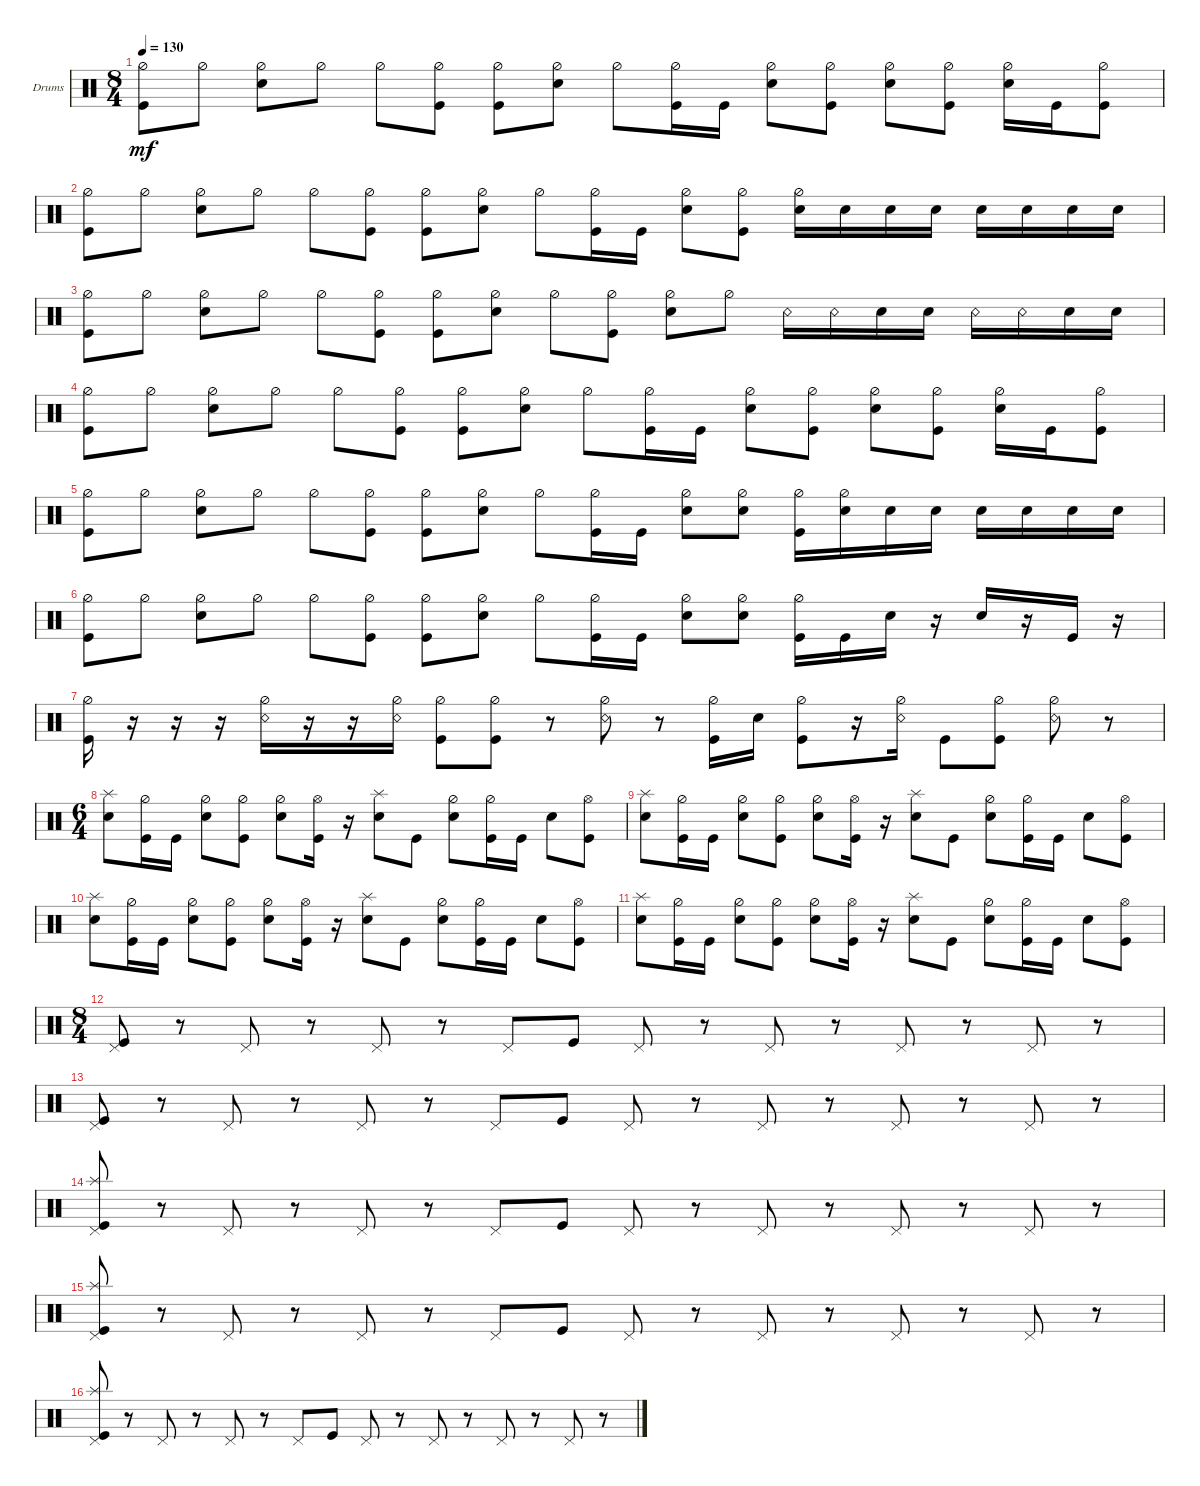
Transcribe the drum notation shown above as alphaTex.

\bracketExtendMode groupsimilarinstruments
\firstSystemTrackNameOrientation horizontal
\otherSystemsTrackNameOrientation horizontal
\track ("Drumkit" "Drums") {instrument percussion}
\staff {score}
\articulation defaults
\ts (8 4)
\tempo 130
\clef neutral
\ks c
("Hi-Hat (half)" "Kick (hit)").8{dy mf} "Hi-Hat (half)".8 ("Hi-Hat (half)" "Snare (hit) 2").8 "Hi-Hat (half)".8 "Hi-Hat (half)".8 ("Hi-Hat (half)" "Kick (hit)").8 ("Hi-Hat (half)" "Kick (hit)").8 ("Hi-Hat (half)" "Snare (hit) 2").8 "Hi-Hat (half)".8 ("Hi-Hat (half)" "Kick (hit)").16 "Kick (hit)".16 ("Hi-Hat (half)" "Snare (hit) 2").8 ("Kick (hit)" "Hi-Hat (half)").8 ("Snare (hit) 2" "Hi-Hat (half)").8 ("Kick (hit)" "Hi-Hat (half)").8 ("Snare (hit) 2" "Hi-Hat (half)").16 "Kick (hit)".16 ("Kick (hit)" "Hi-Hat (half)").8 |
("Hi-Hat (half)" "Kick (hit)").8 "Hi-Hat (half)".8 ("Hi-Hat (half)" "Snare (hit) 2").8 "Hi-Hat (half)".8 "Hi-Hat (half)".8 ("Hi-Hat (half)" "Kick (hit)").8 ("Hi-Hat (half)" "Kick (hit)").8 ("Hi-Hat (half)" "Snare (hit) 2").8 "Hi-Hat (half)".8 ("Hi-Hat (half)" "Kick (hit)").16 "Kick (hit)".16 ("Hi-Hat (half)" "Snare (hit) 2").8 ("Kick (hit)" "Hi-Hat (half)").8 ("Snare (hit) 2" "Hi-Hat (half)").16 "Snare (hit) 2".16 "Snare (hit) 2".16 "Snare (hit) 2".16 "Snare (hit) 2".16 "Snare (hit) 2".16 "Snare (hit) 2".16 "Snare (hit) 2".16 |
("Hi-Hat (half)" "Kick (hit)").8 "Hi-Hat (half)".8 ("Hi-Hat (half)" "Snare (hit) 2").8 "Hi-Hat (half)".8 "Hi-Hat (half)".8 ("Hi-Hat (half)" "Kick (hit)").8 ("Hi-Hat (half)" "Kick (hit)").8 ("Hi-Hat (half)" "Snare (hit) 2").8 "Hi-Hat (half)".8 ("Hi-Hat (half)" "Kick (hit)").8 ("Hi-Hat (half)" "Snare (hit) 2").8 "Hi-Hat (half)".8 "Snare (rim shot)".16 "Snare (rim shot)".16 "Snare (hit) 2".16 "Snare (hit) 2".16 "Snare (rim shot)".16 "Snare (rim shot)".16 "Snare (hit) 2".16 "Snare (hit) 2".16 |
("Hi-Hat (half)" "Kick (hit)").8 "Hi-Hat (half)".8 ("Hi-Hat (half)" "Snare (hit) 2").8 "Hi-Hat (half)".8 "Hi-Hat (half)".8 ("Hi-Hat (half)" "Kick (hit)").8 ("Hi-Hat (half)" "Kick (hit)").8 ("Hi-Hat (half)" "Snare (hit) 2").8 "Hi-Hat (half)".8 ("Hi-Hat (half)" "Kick (hit)").16 "Kick (hit)".16 ("Hi-Hat (half)" "Snare (hit) 2").8 ("Kick (hit)" "Hi-Hat (half)").8 ("Snare (hit) 2" "Hi-Hat (half)").8 ("Kick (hit)" "Hi-Hat (half)").8 ("Snare (hit) 2" "Hi-Hat (half)").16 "Kick (hit)".16 ("Kick (hit)" "Hi-Hat (half)").8 |
("Hi-Hat (half)" "Kick (hit)").8 "Hi-Hat (half)".8 ("Hi-Hat (half)" "Snare (hit) 2").8 "Hi-Hat (half)".8 "Hi-Hat (half)".8 ("Hi-Hat (half)" "Kick (hit)").8 ("Hi-Hat (half)" "Kick (hit)").8 ("Hi-Hat (half)" "Snare (hit) 2").8 "Hi-Hat (half)".8 ("Hi-Hat (half)" "Kick (hit)").16 "Kick (hit)".16 ("Hi-Hat (half)" "Snare (hit) 2").8 ("Hi-Hat (half)" "Snare (hit) 2").8 ("Hi-Hat (half)" "Kick (hit)").16 ("Snare (hit) 2" "Hi-Hat (half)").16 "Snare (hit) 2".16 "Snare (hit) 2".16 "Snare (hit) 2".16 "Snare (hit) 2".16 "Snare (hit) 2".16 "Snare (hit) 2".16 |
("Hi-Hat (half)" "Kick (hit)").8 "Hi-Hat (half)".8 ("Hi-Hat (half)" "Snare (hit) 2").8 "Hi-Hat (half)".8 "Hi-Hat (half)".8 ("Hi-Hat (half)" "Kick (hit)").8 ("Hi-Hat (half)" "Kick (hit)").8 ("Hi-Hat (half)" "Snare (hit) 2").8 "Hi-Hat (half)".8 ("Hi-Hat (half)" "Kick (hit)").16 "Kick (hit)".16 ("Hi-Hat (half)" "Snare (hit) 2").8 ("Hi-Hat (half)" "Snare (hit) 2").8 ("Hi-Hat (half)" "Kick (hit)").16 "Kick (hit)".16 "Snare (hit) 2".16 r.16 "Snare (hit) 2".16 r.16 "Kick (hit)".16 r.16 |
("Kick (hit)" "Hi-Hat (half)").16 r.16 r.16 r.16 ("Snare (rim shot)" "Hi-Hat (half)").16 r.16 r.16 ("Snare (rim shot)" "Hi-Hat (half)").16 ("Kick (hit)" "Hi-Hat (half)").8 ("Kick (hit)" "Hi-Hat (half)").8 r.8 ("Snare (rim shot)" "Hi-Hat (half)").8 r.8 ("Hi-Hat (half)" "Kick (hit)").16 "Snare (hit) 2".16 ("Hi-Hat (half)" "Kick (hit)").8 r.16 ("Snare (rim shot)" "Hi-Hat (half)").16 "Kick (hit)".8 ("Kick (hit)" "Hi-Hat (half)").8 ("Snare (rim shot)" "Hi-Hat (half)").8 r.8 |
\ts (6 4)
("Splash (hit)" "Snare (hit) 2").8 ("Kick (hit)" "Hi-Hat (half)").16 "Kick (hit)".16 ("Hi-Hat (half)" "Snare (hit) 2").8 ("Kick (hit)" "Hi-Hat (half)").8 ("Snare (hit) 2" "Hi-Hat (half)").8 ("Kick (hit)" "Hi-Hat (open)").16 r.16 ("Splash (hit)" "Snare (hit) 2").8 "Kick (hit)".8 ("Hi-Hat (half)" "Snare (hit) 2").8 ("Hi-Hat (half)" "Kick (hit)").16 "Kick (hit)".16 "Snare (hit) 2".8 ("Kick (hit)" "Hi-Hat (open)").8 |
("Splash (hit)" "Snare (hit) 2").8 ("Kick (hit)" "Hi-Hat (half)").16 "Kick (hit)".16 ("Hi-Hat (half)" "Snare (hit) 2").8 ("Kick (hit)" "Hi-Hat (half)").8 ("Snare (hit) 2" "Hi-Hat (half)").8 ("Kick (hit)" "Hi-Hat (open)").16 r.16 ("Splash (hit)" "Snare (hit) 2").8 "Kick (hit)".8 ("Hi-Hat (half)" "Snare (hit) 2").8 ("Hi-Hat (half)" "Kick (hit)").16 "Kick (hit)".16 "Snare (hit) 2".8 ("Kick (hit)" "Hi-Hat (open)").8 |
("Splash (hit)" "Snare (hit) 2").8 ("Kick (hit)" "Hi-Hat (half)").16 "Kick (hit)".16 ("Hi-Hat (half)" "Snare (hit) 2").8 ("Kick (hit)" "Hi-Hat (half)").8 ("Snare (hit) 2" "Hi-Hat (half)").8 ("Kick (hit)" "Hi-Hat (open)").16 r.16 ("Splash (hit)" "Snare (hit) 2").8 "Kick (hit)".8 ("Hi-Hat (half)" "Snare (hit) 2").8 ("Hi-Hat (half)" "Kick (hit)").16 "Kick (hit)".16 "Snare (hit) 2".8 ("Kick (hit)" "Hi-Hat (open)").8 |
("Splash (hit)" "Snare (hit) 2").8 ("Kick (hit)" "Hi-Hat (half)").16 "Kick (hit)".16 ("Hi-Hat (half)" "Snare (hit) 2").8 ("Kick (hit)" "Hi-Hat (half)").8 ("Snare (hit) 2" "Hi-Hat (half)").8 ("Kick (hit)" "Hi-Hat (open)").16 r.16 ("Splash (hit)" "Snare (hit) 2").8 "Kick (hit)".8 ("Hi-Hat (half)" "Snare (hit) 2").8 ("Hi-Hat (half)" "Kick (hit)").16 "Kick (hit)".16 "Snare (hit) 2".8 ("Kick (hit)" "Hi-Hat (open)").8 |
\ts (8 4)
("Pedal Hi-Hat (hit)" "Kick (hit)").8 r.8 "Pedal Hi-Hat (hit)".8 r.8 "Pedal Hi-Hat (hit)".8 r.8 "Pedal Hi-Hat (hit)".8 "Kick (hit)".8 "Pedal Hi-Hat (hit)".8 r.8 "Pedal Hi-Hat (hit)".8 r.8 "Pedal Hi-Hat (hit)".8 r.8 "Pedal Hi-Hat (hit)".8 r.8 |
("Pedal Hi-Hat (hit)" "Kick (hit)").8 r.8 "Pedal Hi-Hat (hit)".8 r.8 "Pedal Hi-Hat (hit)".8 r.8 "Pedal Hi-Hat (hit)".8 "Kick (hit)".8 "Pedal Hi-Hat (hit)".8 r.8 "Pedal Hi-Hat (hit)".8 r.8 "Pedal Hi-Hat (hit)".8 r.8 "Pedal Hi-Hat (hit)".8 r.8 |
("Kick (hit)" "Pedal Hi-Hat (hit)" "Splash (hit)").8 r.8 "Pedal Hi-Hat (hit)".8 r.8 "Pedal Hi-Hat (hit)".8 r.8 "Pedal Hi-Hat (hit)".8 "Kick (hit)".8 "Pedal Hi-Hat (hit)".8 r.8 "Pedal Hi-Hat (hit)".8 r.8 "Pedal Hi-Hat (hit)".8 r.8 "Pedal Hi-Hat (hit)".8 r.8 |
("Kick (hit)" "Pedal Hi-Hat (hit)" "Splash (hit)").8 r.8 "Pedal Hi-Hat (hit)".8 r.8 "Pedal Hi-Hat (hit)".8 r.8 "Pedal Hi-Hat (hit)".8 "Kick (hit)".8 "Pedal Hi-Hat (hit)".8 r.8 "Pedal Hi-Hat (hit)".8 r.8 "Pedal Hi-Hat (hit)".8 r.8 "Pedal Hi-Hat (hit)".8 r.8 |
("Kick (hit)" "Pedal Hi-Hat (hit)" "Splash (hit)").8 r.8 "Pedal Hi-Hat (hit)".8 r.8 "Pedal Hi-Hat (hit)".8 r.8 "Pedal Hi-Hat (hit)".8 "Kick (hit)".8 "Pedal Hi-Hat (hit)".8 r.8 "Pedal Hi-Hat (hit)".8 r.8 "Pedal Hi-Hat (hit)".8 r.8 "Pedal Hi-Hat (hit)".8 r.8
